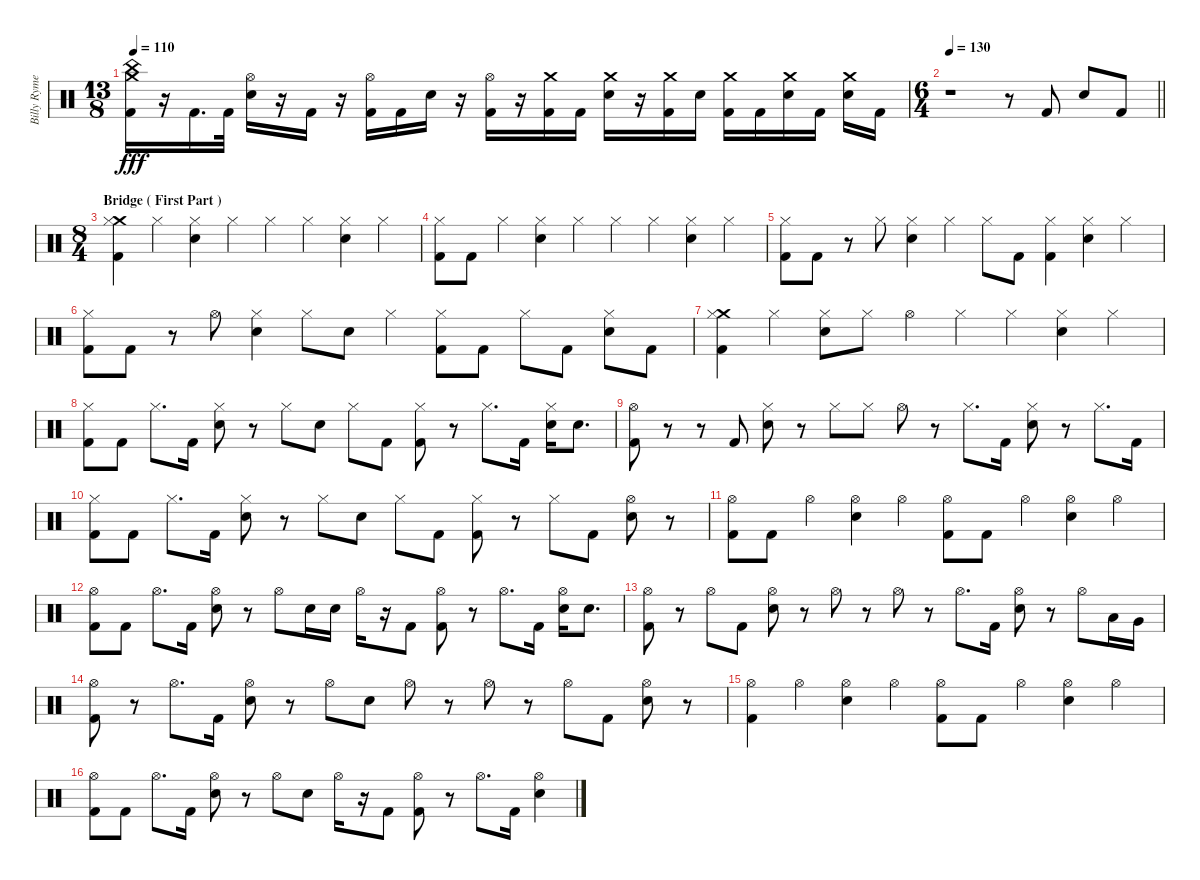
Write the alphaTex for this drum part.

\track ("Billy Rymer" "Billy Ryme") {instrument percussion}
\staff {score}
\articulation defaults
\ts (13 8)
\tempo 110
\clef neutral
\ks c
("China (hit)" "Crash medium (hit)" "Kick (hit) 2").16{dy fff} r.16 "Kick (hit) 2".16{d} "Kick (hit) 2".32 ("Hi-Hat (open)" "Electric Snare (hit)").16 r.16 "Kick (hit) 2".16 r.16 ("Hi-Hat (open)" "Kick (hit) 2").16 "Kick (hit) 2".16 "Electric Snare (hit)".16 r.16 ("Hi-Hat (open)" "Kick (hit) 2").16 r.16 ("Crash medium (hit)" "Kick (hit) 2").16 "Kick (hit) 2".16 ("Crash medium (hit)" "Electric Snare (hit)").16 r.16 ("Crash medium (hit)" "Kick (hit) 2").16 "Electric Snare (hit)".16 ("Crash medium (hit)" "Kick (hit) 2").16 "Kick (hit) 2".16 ("Crash medium (hit)" "Electric Snare (hit)").16 "Kick (hit) 2".16 ("Crash medium (hit)" "Electric Snare (hit)").16 "Kick (hit) 2".16 |
\ts (6 4)
\tempo 130
\barLineRight lightlight
r.1 r.8 "Kick (hit) 2".8 "Electric Snare (hit)".8 "Kick (hit) 2".8 |
\ts (8 4)
\section ("" "Bridge ( First Part )")
("Crash medium (hit)" "Hi-Hat (closed)" "Kick (hit) 2").4 "Hi-Hat (closed)".4 ("Hi-Hat (closed)" "Electric Snare (hit)").4 "Hi-Hat (closed)".4 "Hi-Hat (closed)".4 "Hi-Hat (closed)".4 ("Hi-Hat (closed)" "Electric Snare (hit)").4 "Hi-Hat (closed)".4 |
("Hi-Hat (closed)" "Kick (hit) 2").8 "Kick (hit) 2".8 "Hi-Hat (closed)".4 ("Hi-Hat (closed)" "Electric Snare (hit)").4 "Hi-Hat (closed)".4 "Hi-Hat (closed)".4 "Hi-Hat (closed)".4 ("Hi-Hat (closed)" "Electric Snare (hit)").4 "Hi-Hat (closed)".4 |
("Hi-Hat (closed)" "Kick (hit) 2").8 "Kick (hit) 2".8 r.8 "Hi-Hat (closed)".8 ("Hi-Hat (closed)" "Electric Snare (hit)").4 "Hi-Hat (closed)".4 "Hi-Hat (closed)".8 "Kick (hit) 2".8 ("Hi-Hat (closed)" "Kick (hit) 2").4 ("Hi-Hat (closed)" "Electric Snare (hit)").4 "Hi-Hat (closed)".4 |
("Hi-Hat (closed)" "Kick (hit) 2").8 "Kick (hit) 2".8 r.8 "Hi-Hat (open)".8 ("Hi-Hat (closed)" "Electric Snare (hit)").4 "Hi-Hat (closed)".8 "Electric Snare (hit)".8 "Hi-Hat (closed)".4 ("Hi-Hat (closed)" "Kick (hit) 2").8 "Kick (hit) 2".8 "Hi-Hat (closed)".8 "Kick (hit) 2".8 ("Hi-Hat (closed)" "Electric Snare (hit)").8 "Kick (hit) 2".8 |
("Crash medium (hit)" "Hi-Hat (closed)" "Kick (hit) 2").4 "Hi-Hat (closed)".4 ("Hi-Hat (closed)" "Electric Snare (hit)").8 "Hi-Hat (closed)".8 "Hi-Hat (open)".4 "Hi-Hat (closed)".4 "Hi-Hat (closed)".4 ("Hi-Hat (closed)" "Electric Snare (hit)").4 "Hi-Hat (closed)".4 |
("Hi-Hat (closed)" "Kick (hit) 2").8 "Kick (hit) 2".8 "Hi-Hat (closed)".8{d} "Kick (hit) 2".16 ("Hi-Hat (closed)" "Electric Snare (hit)").8 r.8 "Hi-Hat (closed)".8 "Electric Snare (hit)".8 "Hi-Hat (closed)".8 "Kick (hit) 2".8 ("Hi-Hat (closed)" "Kick (hit) 2").8 r.8 "Hi-Hat (closed)".8{d} "Kick (hit) 2".16 ("Hi-Hat (closed)" "Electric Snare (hit)").16 "Electric Snare (hit)".8{d} |
("Hi-Hat (open)" "Kick (hit) 2").8 r.8 r.8 "Kick (hit) 2".8 ("Hi-Hat (closed)" "Electric Snare (hit)").8 r.8 "Hi-Hat (closed)".8 "Hi-Hat (closed)".8 "Hi-Hat (open)".8 r.8 "Hi-Hat (closed)".8{d} "Kick (hit) 2".16 ("Hi-Hat (closed)" "Electric Snare (hit)").8 r.8 "Hi-Hat (closed)".8{d} "Kick (hit) 2".16 |
("Hi-Hat (closed)" "Kick (hit) 2").8 "Kick (hit) 2".8 "Hi-Hat (closed)".8{d} "Kick (hit) 2".16 ("Hi-Hat (closed)" "Electric Snare (hit)").8 r.8 "Hi-Hat (closed)".8 "Electric Snare (hit)".8 "Hi-Hat (closed)".8 "Kick (hit) 2".8 ("Hi-Hat (closed)" "Kick (hit) 2").8 r.8 "Hi-Hat (closed)".8 "Kick (hit) 2".8 ("Hi-Hat (open)" "Electric Snare (hit)").8 r.8 |
("Hi-Hat (open)" "Kick (hit) 2").8 "Kick (hit) 2".8 "Hi-Hat (open)".4 ("Hi-Hat (open)" "Electric Snare (hit)").4 "Hi-Hat (open)".4 ("Hi-Hat (open)" "Kick (hit) 2").8 "Kick (hit) 2".8 "Hi-Hat (open)".4 ("Hi-Hat (open)" "Electric Snare (hit)").4 "Hi-Hat (open)".4 |
("Hi-Hat (open)" "Kick (hit) 2").8 "Kick (hit) 2".8 "Hi-Hat (open)".8{d} "Kick (hit) 2".16 ("Hi-Hat (open)" "Electric Snare (hit)").8 r.8 "Hi-Hat (open)".8 "Electric Snare (hit)".16 "Electric Snare (hit)".16 "Hi-Hat (open)".16 r.16 "Kick (hit) 2".8 ("Hi-Hat (open)" "Kick (hit) 2").8 r.8 "Hi-Hat (open)".8{d} "Kick (hit) 2".16 ("Hi-Hat (open)" "Electric Snare (hit)").16 "Electric Snare (hit)".8{d} |
("Hi-Hat (open)" "Kick (hit) 2").8 r.8 "Hi-Hat (open)".8 "Kick (hit) 2".8 ("Hi-Hat (open)" "Electric Snare (hit)").8 r.8 "Hi-Hat (open)".8 r.8 "Hi-Hat (open)".8 r.8 "Hi-Hat (open)".8{d} "Kick (hit) 2".16 ("Hi-Hat (open)" "Electric Snare (hit)").8 r.8 "Hi-Hat (open)".8 "Low Tom (hit)".16 "Very Low Tom (hit)".16 |
("Hi-Hat (open)" "Kick (hit) 2").8 r.8 "Hi-Hat (open)".8{d} "Kick (hit) 2".16 ("Hi-Hat (open)" "Electric Snare (hit)").8 r.8 "Hi-Hat (open)".8 "Electric Snare (hit)".8 "Hi-Hat (open)".8 r.8 "Hi-Hat (open)".8 r.8 "Hi-Hat (open)".8 "Kick (hit) 2".8 ("Hi-Hat (open)" "Electric Snare (hit)").8 r.8 |
("Hi-Hat (open)" "Kick (hit) 2").4 "Hi-Hat (open)".4 ("Hi-Hat (open)" "Electric Snare (hit)").4 "Hi-Hat (open)".4 ("Hi-Hat (open)" "Kick (hit) 2").8 "Kick (hit) 2".8 "Hi-Hat (open)".4 ("Hi-Hat (open)" "Electric Snare (hit)").4 "Hi-Hat (open)".4 |
("Hi-Hat (open)" "Kick (hit) 2").8 "Kick (hit) 2".8 "Hi-Hat (open)".8{d} "Kick (hit) 2".16 ("Hi-Hat (open)" "Electric Snare (hit)").8 r.8 "Hi-Hat (open)".8 "Electric Snare (hit)".8 "Hi-Hat (open)".16 r.16 "Kick (hit) 2".8 ("Hi-Hat (open)" "Kick (hit) 2").8 r.8 "Hi-Hat (open)".8{d} "Kick (hit) 2".16 ("Hi-Hat (open)" "Electric Snare (hit)").4
